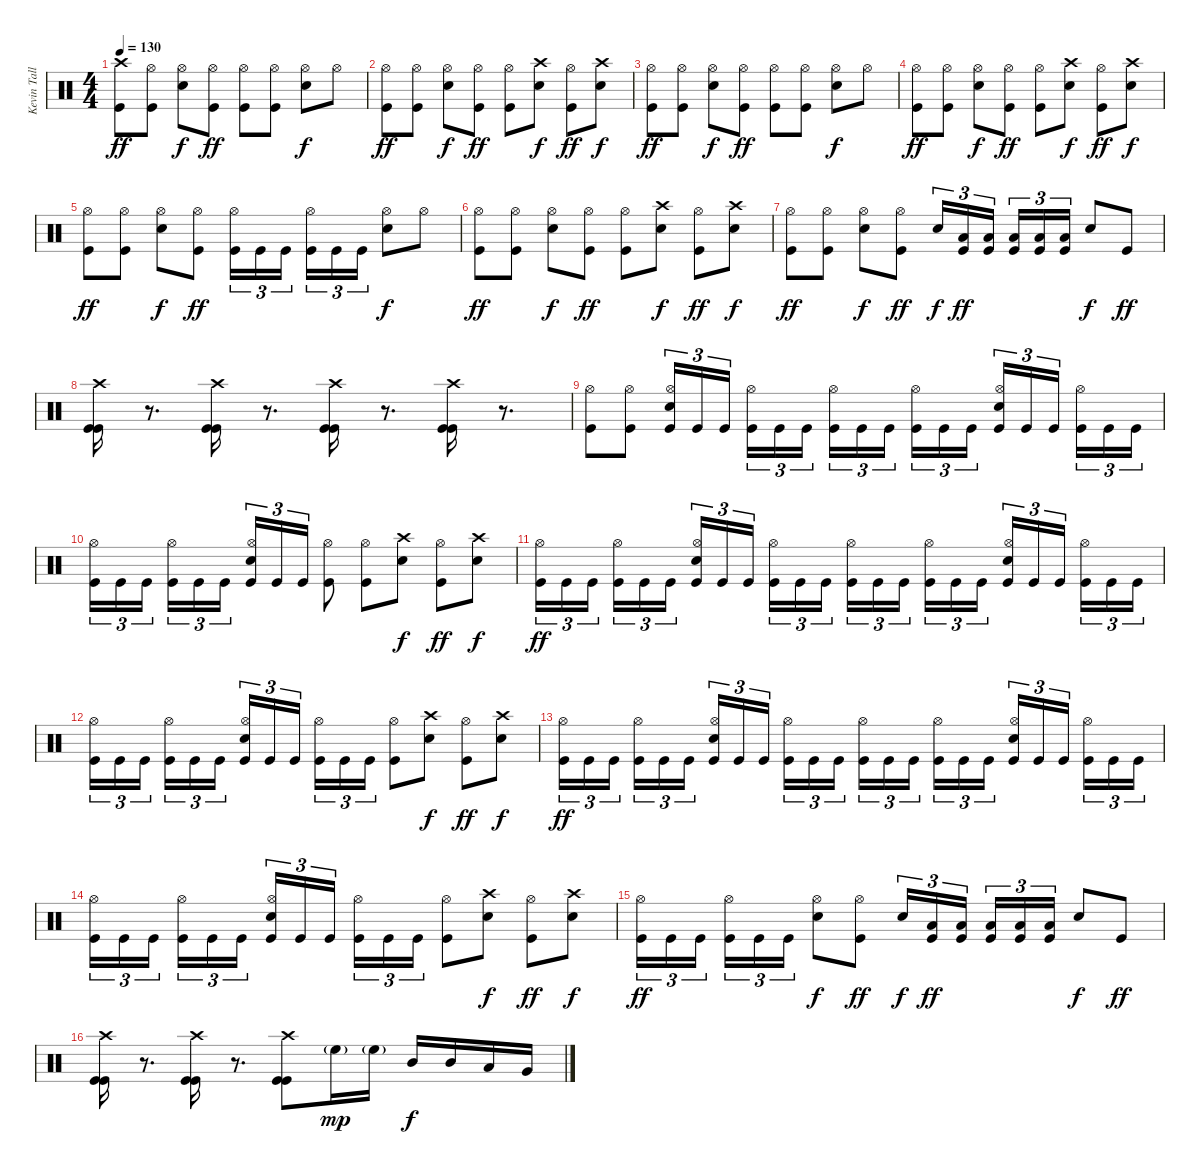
\track ("Kevin Talley" "Kevin Tall") {instrument percussion}
\staff {score}
\articulation defaults
\ts (4 4)
\tempo 130
\clef neutral
\ks c
("Crash high (hit)" "Kick (hit)").8{dy ff volume 16} ("Hi-Hat (open)" "Kick (hit)").8 ("Hi-Hat (open)" "Electric Snare (hit)").8{dy f} ("Hi-Hat (open)" "Kick (hit)").8{dy ff} ("Hi-Hat (open)" "Kick (hit)").8 ("Hi-Hat (open)" "Kick (hit)").8 ("Hi-Hat (open)" "Electric Snare (hit)").8{dy f} "Hi-Hat (open)".8 |
("Hi-Hat (open)" "Kick (hit)").8{dy ff} ("Hi-Hat (open)" "Kick (hit)").8 ("Hi-Hat (open)" "Electric Snare (hit)").8{dy f} ("Hi-Hat (open)" "Kick (hit)").8{dy ff} ("Hi-Hat (open)" "Kick (hit)").8 ("Crash high (hit)" "Electric Snare (hit)").8{dy f} ("Hi-Hat (open)" "Kick (hit)").8{dy ff} ("Crash high (hit)" "Electric Snare (hit)").8{dy f} |
("Hi-Hat (open)" "Kick (hit)").8{dy ff} ("Hi-Hat (open)" "Kick (hit)").8 ("Hi-Hat (open)" "Electric Snare (hit)").8{dy f} ("Hi-Hat (open)" "Kick (hit)").8{dy ff} ("Hi-Hat (open)" "Kick (hit)").8 ("Hi-Hat (open)" "Kick (hit)").8 ("Hi-Hat (open)" "Electric Snare (hit)").8{dy f} "Hi-Hat (open)".8 |
("Hi-Hat (open)" "Kick (hit)").8{dy ff} ("Hi-Hat (open)" "Kick (hit)").8 ("Hi-Hat (open)" "Electric Snare (hit)").8{dy f} ("Hi-Hat (open)" "Kick (hit)").8{dy ff} ("Hi-Hat (open)" "Kick (hit)").8 ("Crash high (hit)" "Electric Snare (hit)").8{dy f} ("Hi-Hat (open)" "Kick (hit)").8{dy ff} ("Crash high (hit)" "Electric Snare (hit)").8{dy f} |
("Hi-Hat (open)" "Kick (hit)").8{dy ff} ("Hi-Hat (open)" "Kick (hit)").8 ("Hi-Hat (open)" "Electric Snare (hit)").8{dy f} ("Hi-Hat (open)" "Kick (hit)").8{dy ff} ("Hi-Hat (open)" "Kick (hit)").16{tu (3 2)} "Kick (hit)".16{tu (3 2)} "Kick (hit)".16{tu (3 2)} ("Hi-Hat (open)" "Kick (hit)").16{tu (3 2)} "Kick (hit)".16{tu (3 2)} "Kick (hit)".16{tu (3 2)} ("Hi-Hat (open)" "Electric Snare (hit)").8{dy f} "Hi-Hat (open)".8 |
("Hi-Hat (open)" "Kick (hit)").8{dy ff} ("Hi-Hat (open)" "Kick (hit)").8 ("Hi-Hat (open)" "Electric Snare (hit)").8{dy f} ("Hi-Hat (open)" "Kick (hit)").8{dy ff} ("Hi-Hat (open)" "Kick (hit)").8 ("Crash high (hit)" "Electric Snare (hit)").8{dy f} ("Hi-Hat (open)" "Kick (hit)").8{dy ff} ("Crash high (hit)" "Electric Snare (hit)").8{dy f} |
("Hi-Hat (open)" "Kick (hit)").8{dy ff} ("Hi-Hat (open)" "Kick (hit)").8 ("Hi-Hat (open)" "Electric Snare (hit)").8{dy f} ("Hi-Hat (open)" "Kick (hit)").8{dy ff} "Electric Snare (hit)".16{tu (3 2) dy f} ("Low Floor Tom (hit)" "Kick (hit)").16{tu (3 2) dy ff} ("Low Floor Tom (hit)" "Kick (hit)").16{tu (3 2)} ("Low Floor Tom (hit)" "Kick (hit)").16{tu (3 2)} ("Low Floor Tom (hit)" "Kick (hit)").16{tu (3 2)} ("Low Floor Tom (hit)" "Kick (hit)").16{tu (3 2)} "Electric Snare (hit)".8{dy f} "Kick (hit)".8{dy ff} |
("Crash high (hit)" "Kick (hit)" "Kick (hit)").16 r.8{d volume 0} ("Crash high (hit)" "Kick (hit)" "Kick (hit)").16{volume 16} r.8{d volume 0} ("Crash high (hit)" "Kick (hit)" "Kick (hit)").16{volume 16} r.8{d volume 0} ("Crash high (hit)" "Kick (hit)" "Kick (hit)").16{volume 16} r.8{d volume 0} |
("Hi-Hat (open)" "Kick (hit)").8{volume 16} ("Hi-Hat (open)" "Kick (hit)").8 ("Hi-Hat (open)" "Electric Snare (hit)" "Kick (hit)").16{tu (3 2)} "Kick (hit)".16{tu (3 2)} "Kick (hit)".16{tu (3 2)} ("Hi-Hat (open)" "Kick (hit)").16{tu (3 2)} "Kick (hit)".16{tu (3 2)} "Kick (hit)".16{tu (3 2)} ("Hi-Hat (open)" "Kick (hit)").16{tu (3 2)} "Kick (hit)".16{tu (3 2)} "Kick (hit)".16{tu (3 2)} ("Hi-Hat (open)" "Kick (hit)").16{tu (3 2)} "Kick (hit)".16{tu (3 2)} "Kick (hit)".16{tu (3 2)} ("Hi-Hat (open)" "Electric Snare (hit)" "Kick (hit)").16{tu (3 2)} "Kick (hit)".16{tu (3 2)} "Kick (hit)".16{tu (3 2)} ("Hi-Hat (open)" "Kick (hit)").16{tu (3 2)} "Kick (hit)".16{tu (3 2)} "Kick (hit)".16{tu (3 2)} |
("Hi-Hat (open)" "Kick (hit)").16{tu (3 2)} "Kick (hit)".16{tu (3 2)} "Kick (hit)".16{tu (3 2)} ("Hi-Hat (open)" "Kick (hit)").16{tu (3 2)} "Kick (hit)".16{tu (3 2)} "Kick (hit)".16{tu (3 2)} ("Hi-Hat (open)" "Electric Snare (hit)" "Kick (hit)").16{tu (3 2)} "Kick (hit)".16{tu (3 2)} "Kick (hit)".16{tu (3 2)} ("Hi-Hat (open)" "Kick (hit)").8 ("Hi-Hat (open)" "Kick (hit)").8 ("Crash high (hit)" "Electric Snare (hit)").8{dy f} ("Hi-Hat (open)" "Kick (hit)").8{dy ff} ("Crash high (hit)" "Electric Snare (hit)").8{dy f} |
("Hi-Hat (open)" "Kick (hit)").16{tu (3 2) dy ff} "Kick (hit)".16{tu (3 2)} "Kick (hit)".16{tu (3 2)} ("Hi-Hat (open)" "Kick (hit)").16{tu (3 2)} "Kick (hit)".16{tu (3 2)} "Kick (hit)".16{tu (3 2)} ("Hi-Hat (open)" "Electric Snare (hit)" "Kick (hit)").16{tu (3 2)} "Kick (hit)".16{tu (3 2)} "Kick (hit)".16{tu (3 2)} ("Hi-Hat (open)" "Kick (hit)").16{tu (3 2)} "Kick (hit)".16{tu (3 2)} "Kick (hit)".16{tu (3 2)} ("Hi-Hat (open)" "Kick (hit)").16{tu (3 2)} "Kick (hit)".16{tu (3 2)} "Kick (hit)".16{tu (3 2)} ("Hi-Hat (open)" "Kick (hit)").16{tu (3 2)} "Kick (hit)".16{tu (3 2)} "Kick (hit)".16{tu (3 2)} ("Hi-Hat (open)" "Electric Snare (hit)" "Kick (hit)").16{tu (3 2)} "Kick (hit)".16{tu (3 2)} "Kick (hit)".16{tu (3 2)} ("Hi-Hat (open)" "Kick (hit)").16{tu (3 2)} "Kick (hit)".16{tu (3 2)} "Kick (hit)".16{tu (3 2)} |
("Hi-Hat (open)" "Kick (hit)").16{tu (3 2)} "Kick (hit)".16{tu (3 2)} "Kick (hit)".16{tu (3 2)} ("Hi-Hat (open)" "Kick (hit)").16{tu (3 2)} "Kick (hit)".16{tu (3 2)} "Kick (hit)".16{tu (3 2)} ("Hi-Hat (open)" "Electric Snare (hit)" "Kick (hit)").16{tu (3 2)} "Kick (hit)".16{tu (3 2)} "Kick (hit)".16{tu (3 2)} ("Hi-Hat (open)" "Kick (hit)").16{tu (3 2)} "Kick (hit)".16{tu (3 2)} "Kick (hit)".16{tu (3 2)} ("Hi-Hat (open)" "Kick (hit)").8 ("Crash high (hit)" "Electric Snare (hit)").8{dy f} ("Hi-Hat (open)" "Kick (hit)").8{dy ff} ("Crash high (hit)" "Electric Snare (hit)").8{dy f} |
("Hi-Hat (open)" "Kick (hit)").16{tu (3 2) dy ff} "Kick (hit)".16{tu (3 2)} "Kick (hit)".16{tu (3 2)} ("Hi-Hat (open)" "Kick (hit)").16{tu (3 2)} "Kick (hit)".16{tu (3 2)} "Kick (hit)".16{tu (3 2)} ("Hi-Hat (open)" "Electric Snare (hit)" "Kick (hit)").16{tu (3 2)} "Kick (hit)".16{tu (3 2)} "Kick (hit)".16{tu (3 2)} ("Hi-Hat (open)" "Kick (hit)").16{tu (3 2)} "Kick (hit)".16{tu (3 2)} "Kick (hit)".16{tu (3 2)} ("Hi-Hat (open)" "Kick (hit)").16{tu (3 2)} "Kick (hit)".16{tu (3 2)} "Kick (hit)".16{tu (3 2)} ("Hi-Hat (open)" "Kick (hit)").16{tu (3 2)} "Kick (hit)".16{tu (3 2)} "Kick (hit)".16{tu (3 2)} ("Hi-Hat (open)" "Electric Snare (hit)" "Kick (hit)").16{tu (3 2)} "Kick (hit)".16{tu (3 2)} "Kick (hit)".16{tu (3 2)} ("Hi-Hat (open)" "Kick (hit)").16{tu (3 2)} "Kick (hit)".16{tu (3 2)} "Kick (hit)".16{tu (3 2)} |
("Hi-Hat (open)" "Kick (hit)").16{tu (3 2)} "Kick (hit)".16{tu (3 2)} "Kick (hit)".16{tu (3 2)} ("Hi-Hat (open)" "Kick (hit)").16{tu (3 2)} "Kick (hit)".16{tu (3 2)} "Kick (hit)".16{tu (3 2)} ("Hi-Hat (open)" "Electric Snare (hit)" "Kick (hit)").16{tu (3 2)} "Kick (hit)".16{tu (3 2)} "Kick (hit)".16{tu (3 2)} ("Hi-Hat (open)" "Kick (hit)").16{tu (3 2)} "Kick (hit)".16{tu (3 2)} "Kick (hit)".16{tu (3 2)} ("Hi-Hat (open)" "Kick (hit)").8 ("Crash high (hit)" "Electric Snare (hit)").8{dy f} ("Hi-Hat (open)" "Kick (hit)").8{dy ff} ("Crash high (hit)" "Electric Snare (hit)").8{dy f} |
("Hi-Hat (open)" "Kick (hit)").16{tu (3 2) dy ff} "Kick (hit)".16{tu (3 2)} "Kick (hit)".16{tu (3 2)} ("Hi-Hat (open)" "Kick (hit)").16{tu (3 2)} "Kick (hit)".16{tu (3 2)} "Kick (hit)".16{tu (3 2)} ("Hi-Hat (open)" "Electric Snare (hit)").8{dy f} ("Hi-Hat (open)" "Kick (hit)").8{dy ff} "Electric Snare (hit)".16{tu (3 2) dy f} ("Low Floor Tom (hit)" "Kick (hit)").16{tu (3 2) dy ff} ("Low Floor Tom (hit)" "Kick (hit)").16{tu (3 2)} ("Low Floor Tom (hit)" "Kick (hit)").16{tu (3 2)} ("Low Floor Tom (hit)" "Kick (hit)").16{tu (3 2)} ("Low Floor Tom (hit)" "Kick (hit)").16{tu (3 2)} "Electric Snare (hit)".8{dy f} "Kick (hit)".8{dy ff} |
("Crash high (hit)" "Kick (hit)" "Kick (hit)").16 r.8{d volume 0} ("Crash high (hit)" "Kick (hit)" "Kick (hit)").16{volume 16} r.8{d volume 0} ("Crash high (hit)" "Kick (hit)" "Kick (hit)").8{volume 16} "High Floor Tom (hit)"{g}.16{dy mp} "High Floor Tom (hit)"{g}.16 "Mid Tom (hit)".16{dy f} "Mid Tom (hit)".16 "Low Tom (hit)".16 "Very Low Tom (hit)".16
